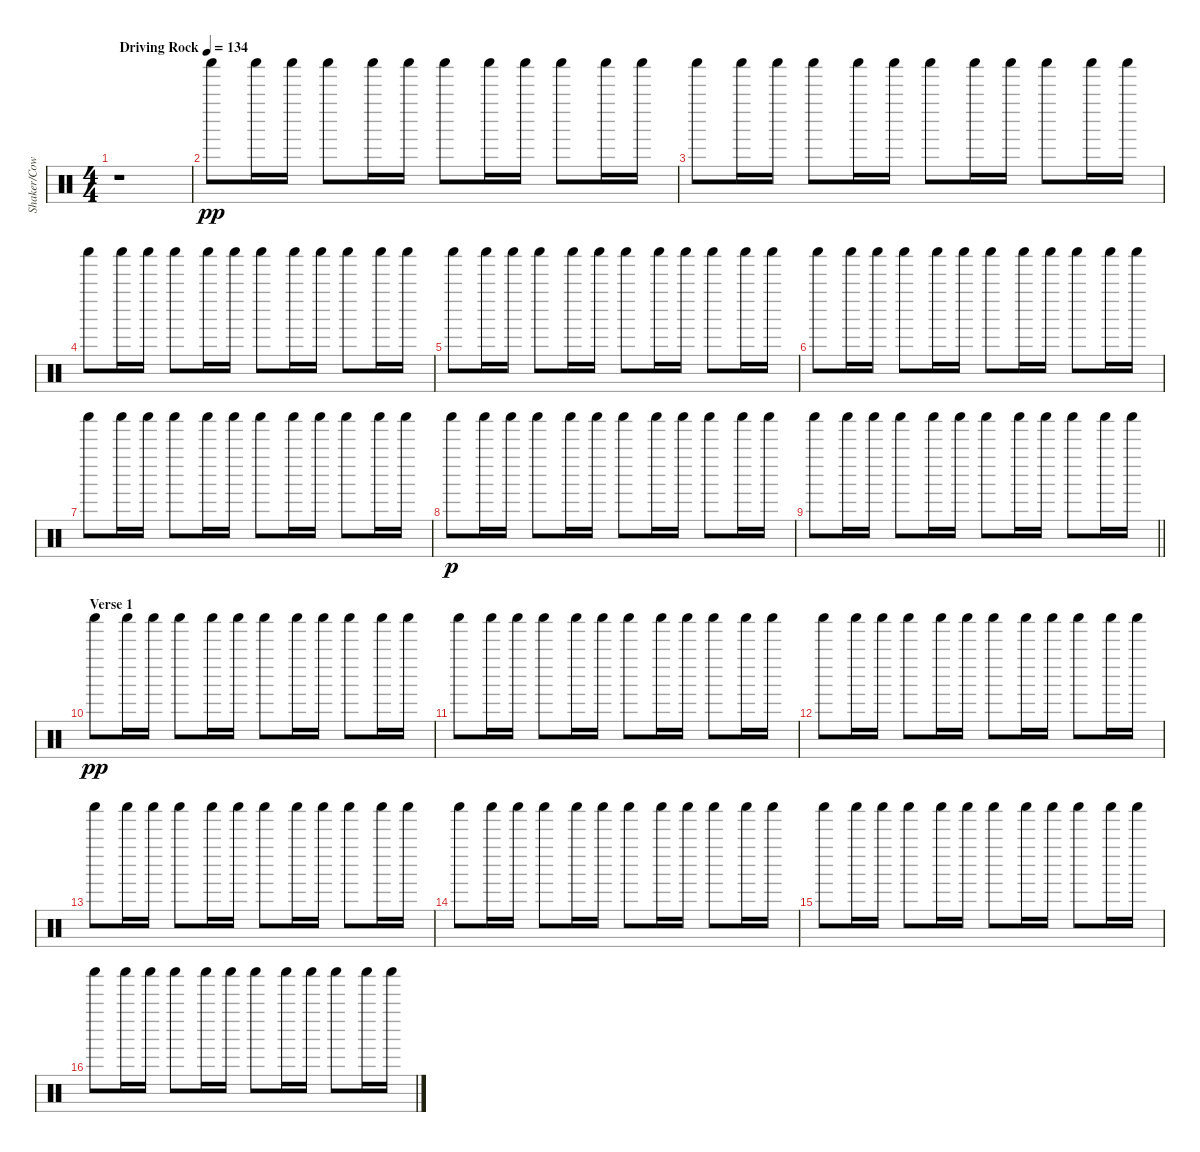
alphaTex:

\track ("Shaker/Cowbell" "Shaker/Cow") {instrument percussion}
\staff {score}
\articulation defaults
\ts (4 4)
\tempo (134 "Driving Rock")
\clef neutral
\ks c
r.1{dy pp} |
"Shaker (hit)".8 "Shaker (hit)".16 "Shaker (hit)".16 "Shaker (hit)".8 "Shaker (hit)".16 "Shaker (hit)".16 "Shaker (hit)".8 "Shaker (hit)".16 "Shaker (hit)".16 "Shaker (hit)".8 "Shaker (hit)".16 "Shaker (hit)".16 |
"Shaker (hit)".8 "Shaker (hit)".16 "Shaker (hit)".16 "Shaker (hit)".8 "Shaker (hit)".16 "Shaker (hit)".16 "Shaker (hit)".8 "Shaker (hit)".16 "Shaker (hit)".16 "Shaker (hit)".8 "Shaker (hit)".16 "Shaker (hit)".16 |
"Shaker (hit)".8 "Shaker (hit)".16 "Shaker (hit)".16 "Shaker (hit)".8 "Shaker (hit)".16 "Shaker (hit)".16 "Shaker (hit)".8 "Shaker (hit)".16 "Shaker (hit)".16 "Shaker (hit)".8 "Shaker (hit)".16 "Shaker (hit)".16 |
"Shaker (hit)".8 "Shaker (hit)".16 "Shaker (hit)".16 "Shaker (hit)".8 "Shaker (hit)".16 "Shaker (hit)".16 "Shaker (hit)".8 "Shaker (hit)".16 "Shaker (hit)".16 "Shaker (hit)".8 "Shaker (hit)".16 "Shaker (hit)".16 |
"Shaker (hit)".8 "Shaker (hit)".16 "Shaker (hit)".16 "Shaker (hit)".8 "Shaker (hit)".16 "Shaker (hit)".16 "Shaker (hit)".8 "Shaker (hit)".16 "Shaker (hit)".16 "Shaker (hit)".8 "Shaker (hit)".16 "Shaker (hit)".16 |
"Shaker (hit)".8 "Shaker (hit)".16 "Shaker (hit)".16 "Shaker (hit)".8 "Shaker (hit)".16 "Shaker (hit)".16 "Shaker (hit)".8 "Shaker (hit)".16 "Shaker (hit)".16 "Shaker (hit)".8 "Shaker (hit)".16 "Shaker (hit)".16 |
"Shaker (hit)".8{dy p} "Shaker (hit)".16 "Shaker (hit)".16 "Shaker (hit)".8 "Shaker (hit)".16 "Shaker (hit)".16 "Shaker (hit)".8 "Shaker (hit)".16 "Shaker (hit)".16 "Shaker (hit)".8 "Shaker (hit)".16 "Shaker (hit)".16 |
\barLineRight lightlight "Shaker (hit)".8 "Shaker (hit)".16 "Shaker (hit)".16 "Shaker (hit)".8 "Shaker (hit)".16 "Shaker (hit)".16 "Shaker (hit)".8 "Shaker (hit)".16 "Shaker (hit)".16 "Shaker (hit)".8 "Shaker (hit)".16 "Shaker (hit)".16
|
\section ("" "Verse 1")
"Shaker (hit)".8{dy pp} "Shaker (hit)".16 "Shaker (hit)".16 "Shaker (hit)".8 "Shaker (hit)".16 "Shaker (hit)".16 "Shaker (hit)".8 "Shaker (hit)".16 "Shaker (hit)".16 "Shaker (hit)".8 "Shaker (hit)".16 "Shaker (hit)".16 |
"Shaker (hit)".8 "Shaker (hit)".16 "Shaker (hit)".16 "Shaker (hit)".8 "Shaker (hit)".16 "Shaker (hit)".16 "Shaker (hit)".8 "Shaker (hit)".16 "Shaker (hit)".16 "Shaker (hit)".8 "Shaker (hit)".16 "Shaker (hit)".16 |
"Shaker (hit)".8 "Shaker (hit)".16 "Shaker (hit)".16 "Shaker (hit)".8 "Shaker (hit)".16 "Shaker (hit)".16 "Shaker (hit)".8 "Shaker (hit)".16 "Shaker (hit)".16 "Shaker (hit)".8 "Shaker (hit)".16 "Shaker (hit)".16 |
"Shaker (hit)".8 "Shaker (hit)".16 "Shaker (hit)".16 "Shaker (hit)".8 "Shaker (hit)".16 "Shaker (hit)".16 "Shaker (hit)".8 "Shaker (hit)".16 "Shaker (hit)".16 "Shaker (hit)".8 "Shaker (hit)".16 "Shaker (hit)".16 |
"Shaker (hit)".8 "Shaker (hit)".16 "Shaker (hit)".16 "Shaker (hit)".8 "Shaker (hit)".16 "Shaker (hit)".16 "Shaker (hit)".8 "Shaker (hit)".16 "Shaker (hit)".16 "Shaker (hit)".8 "Shaker (hit)".16 "Shaker (hit)".16 |
"Shaker (hit)".8 "Shaker (hit)".16 "Shaker (hit)".16 "Shaker (hit)".8 "Shaker (hit)".16 "Shaker (hit)".16 "Shaker (hit)".8 "Shaker (hit)".16 "Shaker (hit)".16 "Shaker (hit)".8 "Shaker (hit)".16 "Shaker (hit)".16 |
"Shaker (hit)".8 "Shaker (hit)".16 "Shaker (hit)".16 "Shaker (hit)".8 "Shaker (hit)".16 "Shaker (hit)".16 "Shaker (hit)".8 "Shaker (hit)".16 "Shaker (hit)".16 "Shaker (hit)".8 "Shaker (hit)".16 "Shaker (hit)".16
